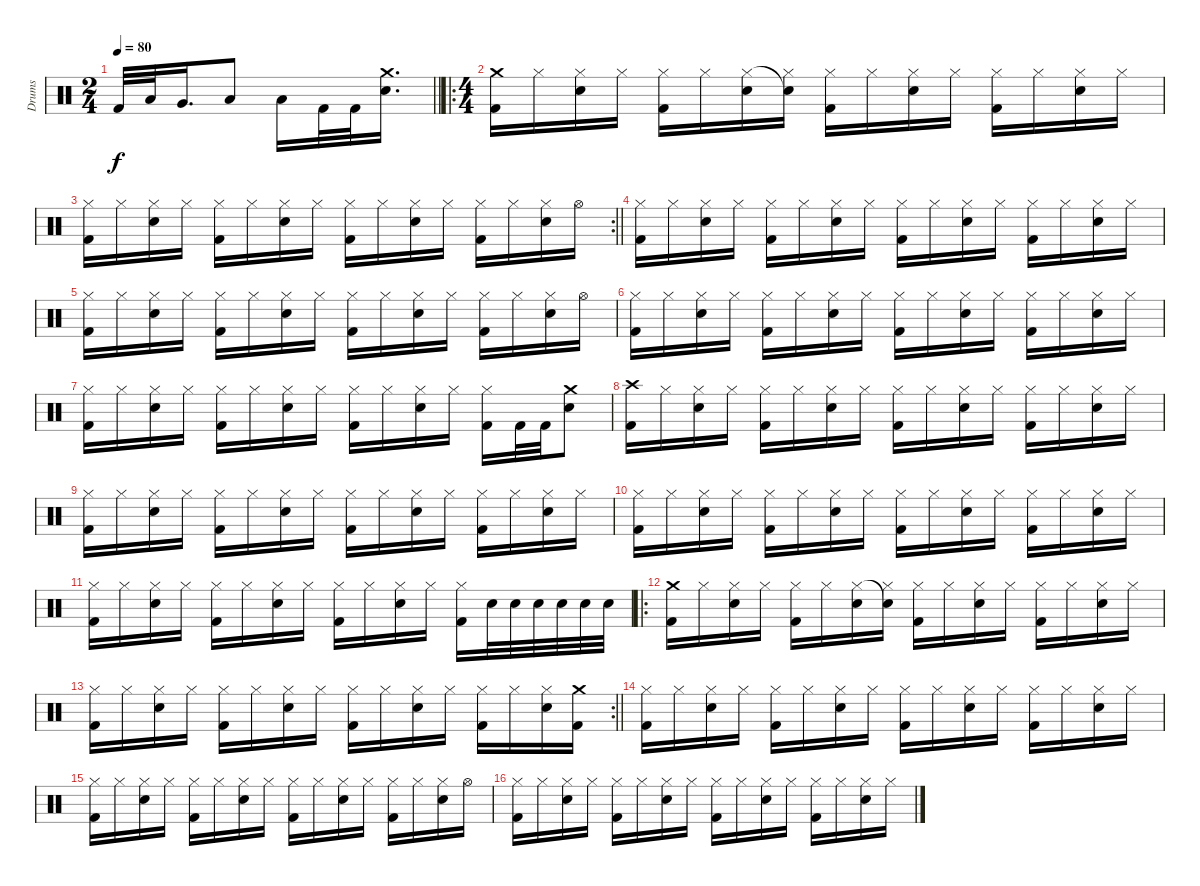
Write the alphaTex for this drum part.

\track ("Drums" "Drums") {instrument percussion}
\staff {score}
\articulation defaults
\ts (2 4)
\tempo 80
\clef neutral
\barLineRight lightlight
\ks c "Kick (hit) 2".32{dy f} "Low Tom (hit)".32 "Very Low Tom (hit)".16{d} "Low Floor Tom (hit)".8 "Low Floor Tom (hit)".16 "Kick (hit) 2".32 "Kick (hit) 2".32
("Crash medium (hit)" "Electric Snare (hit)").16{d} |
\ro
\ts (4 4)
("Crash medium (hit)" "Kick (hit) 2").16 "Hi-Hat (closed)".16 ("Hi-Hat (closed)" "Electric Snare (hit)").16 "Hi-Hat (closed)".16 ("Hi-Hat (closed)" "Kick (hit) 2").16 "Hi-Hat (closed)".16 ("Hi-Hat (closed)" "Electric Snare (hit)").16 ("Snare (hit)"{t} "Hi-Hat (closed)").16 ("Hi-Hat (closed)" "Kick (hit) 2").16 "Hi-Hat (closed)".16 ("Hi-Hat (closed)" "Electric Snare (hit)").16 "Hi-Hat (closed)".16 ("Hi-Hat (closed)" "Kick (hit) 2").16 "Hi-Hat (closed)".16 ("Hi-Hat (closed)" "Electric Snare (hit)").16 "Hi-Hat (closed)".16 |
\rc 2
\barLineRight lightlight
("Hi-Hat (closed)" "Kick (hit) 2").16 "Hi-Hat (closed)".16 ("Hi-Hat (closed)" "Electric Snare (hit)").16 "Hi-Hat (closed)".16 ("Hi-Hat (closed)" "Kick (hit) 2").16 "Hi-Hat (closed)".16 ("Hi-Hat (closed)" "Electric Snare (hit)").16 "Hi-Hat (closed)".16 ("Hi-Hat (closed)" "Kick (hit) 2").16 "Hi-Hat (closed)".16 ("Hi-Hat (closed)" "Electric Snare (hit)").16 "Hi-Hat (closed)".16 ("Hi-Hat (closed)" "Kick (hit) 2").16 "Hi-Hat (closed)".16 ("Hi-Hat (closed)" "Electric Snare (hit)").16 "Hi-Hat (open)".16 |
("Hi-Hat (closed)" "Kick (hit) 2").16 "Hi-Hat (closed)".16 ("Hi-Hat (closed)" "Electric Snare (hit)").16 "Hi-Hat (closed)".16 ("Hi-Hat (closed)" "Kick (hit) 2").16 "Hi-Hat (closed)".16 ("Hi-Hat (closed)" "Electric Snare (hit)").16 "Hi-Hat (closed)".16 ("Hi-Hat (closed)" "Kick (hit) 2").16 "Hi-Hat (closed)".16 ("Hi-Hat (closed)" "Electric Snare (hit)").16 "Hi-Hat (closed)".16 ("Hi-Hat (closed)" "Kick (hit) 2").16 "Hi-Hat (closed)".16 ("Hi-Hat (closed)" "Electric Snare (hit)").16 "Hi-Hat (closed)".16 |
("Hi-Hat (closed)" "Kick (hit) 2").16 "Hi-Hat (closed)".16 ("Hi-Hat (closed)" "Electric Snare (hit)").16 "Hi-Hat (closed)".16 ("Hi-Hat (closed)" "Kick (hit) 2").16 "Hi-Hat (closed)".16 ("Hi-Hat (closed)" "Electric Snare (hit)").16 "Hi-Hat (closed)".16 ("Hi-Hat (closed)" "Kick (hit) 2").16 "Hi-Hat (closed)".16 ("Hi-Hat (closed)" "Electric Snare (hit)").16 "Hi-Hat (closed)".16 ("Hi-Hat (closed)" "Kick (hit) 2").16 "Hi-Hat (closed)".16 ("Hi-Hat (closed)" "Electric Snare (hit)").16 "Hi-Hat (open)".16 |
("Hi-Hat (closed)" "Kick (hit) 2").16 "Hi-Hat (closed)".16 ("Hi-Hat (closed)" "Electric Snare (hit)").16 "Hi-Hat (closed)".16 ("Hi-Hat (closed)" "Kick (hit) 2").16 "Hi-Hat (closed)".16 ("Hi-Hat (closed)" "Electric Snare (hit)").16 "Hi-Hat (closed)".16 ("Hi-Hat (closed)" "Kick (hit) 2").16 "Hi-Hat (closed)".16 ("Hi-Hat (closed)" "Electric Snare (hit)").16 "Hi-Hat (closed)".16 ("Hi-Hat (closed)" "Kick (hit) 2").16 "Hi-Hat (closed)".16 ("Hi-Hat (closed)" "Electric Snare (hit)").16 "Hi-Hat (closed)".16 |
("Hi-Hat (closed)" "Kick (hit) 2").16 "Hi-Hat (closed)".16 ("Hi-Hat (closed)" "Electric Snare (hit)").16 "Hi-Hat (closed)".16 ("Hi-Hat (closed)" "Kick (hit) 2").16 "Hi-Hat (closed)".16 ("Hi-Hat (closed)" "Electric Snare (hit)").16 "Hi-Hat (closed)".16 ("Hi-Hat (closed)" "Kick (hit) 2").16 "Hi-Hat (closed)".16 ("Hi-Hat (closed)" "Electric Snare (hit)").16 "Hi-Hat (closed)".16 ("Hi-Hat (closed)" "Kick (hit) 2").16 "Kick (hit) 2".32 "Kick (hit) 2".32 ("Crash medium (hit)" "Electric Snare (hit)").8 |
("Crash high (hit)" "Kick (hit) 2").16 "Hi-Hat (closed)".16 ("Hi-Hat (closed)" "Electric Snare (hit)").16 "Hi-Hat (closed)".16 ("Hi-Hat (closed)" "Kick (hit) 2").16 "Hi-Hat (closed)".16 ("Hi-Hat (closed)" "Electric Snare (hit)").16 "Hi-Hat (closed)".16 ("Hi-Hat (closed)" "Kick (hit) 2").16 "Hi-Hat (closed)".16 ("Hi-Hat (closed)" "Electric Snare (hit)").16 "Hi-Hat (closed)".16 ("Hi-Hat (closed)" "Kick (hit) 2").16 "Hi-Hat (closed)".16 ("Hi-Hat (closed)" "Electric Snare (hit)").16 "Hi-Hat (closed)".16 |
("Hi-Hat (closed)" "Kick (hit) 2").16 "Hi-Hat (closed)".16 ("Hi-Hat (closed)" "Electric Snare (hit)").16 "Hi-Hat (closed)".16 ("Hi-Hat (closed)" "Kick (hit) 2").16 "Hi-Hat (closed)".16 ("Hi-Hat (closed)" "Electric Snare (hit)").16 "Hi-Hat (closed)".16 ("Hi-Hat (closed)" "Kick (hit) 2").16 "Hi-Hat (closed)".16 ("Hi-Hat (closed)" "Electric Snare (hit)").16 "Hi-Hat (closed)".16 ("Hi-Hat (closed)" "Kick (hit) 2").16 "Hi-Hat (closed)".16 ("Hi-Hat (closed)" "Electric Snare (hit)").16 "Hi-Hat (closed)".16 |
("Hi-Hat (closed)" "Kick (hit) 2").16 "Hi-Hat (closed)".16 ("Hi-Hat (closed)" "Electric Snare (hit)").16 "Hi-Hat (closed)".16 ("Hi-Hat (closed)" "Kick (hit) 2").16 "Hi-Hat (closed)".16 ("Hi-Hat (closed)" "Electric Snare (hit)").16 "Hi-Hat (closed)".16 ("Hi-Hat (closed)" "Kick (hit) 2").16 "Hi-Hat (closed)".16 ("Hi-Hat (closed)" "Electric Snare (hit)").16 "Hi-Hat (closed)".16 ("Hi-Hat (closed)" "Kick (hit) 2").16 "Hi-Hat (closed)".16 ("Hi-Hat (closed)" "Electric Snare (hit)").16 "Hi-Hat (closed)".16 |
("Hi-Hat (closed)" "Kick (hit) 2").16 "Hi-Hat (closed)".16 ("Hi-Hat (closed)" "Electric Snare (hit)").16 "Hi-Hat (closed)".16 ("Hi-Hat (closed)" "Kick (hit) 2").16 "Hi-Hat (closed)".16 ("Hi-Hat (closed)" "Electric Snare (hit)").16 "Hi-Hat (closed)".16 ("Hi-Hat (closed)" "Kick (hit) 2").16 "Hi-Hat (closed)".16 ("Hi-Hat (closed)" "Electric Snare (hit)").16 "Hi-Hat (closed)".16 ("Hi-Hat (closed)" "Kick (hit) 2").16 "Electric Snare (hit)".32 "Electric Snare (hit)".32 "Electric Snare (hit)".32 "Electric Snare (hit)".32 "Electric Snare (hit)".32 "Electric Snare (hit)".32 |
\ro
("Crash medium (hit)" "Kick (hit) 2").16 "Hi-Hat (closed)".16 ("Hi-Hat (closed)" "Electric Snare (hit)").16 "Hi-Hat (closed)".16 ("Hi-Hat (closed)" "Kick (hit) 2").16 "Hi-Hat (closed)".16 ("Hi-Hat (closed)" "Electric Snare (hit)").16 ("Snare (hit)"{t} "Hi-Hat (closed)").16 ("Hi-Hat (closed)" "Kick (hit) 2").16 "Hi-Hat (closed)".16 ("Hi-Hat (closed)" "Electric Snare (hit)").16 "Hi-Hat (closed)".16 ("Hi-Hat (closed)" "Kick (hit) 2").16 "Hi-Hat (closed)".16 ("Hi-Hat (closed)" "Electric Snare (hit)").16 "Hi-Hat (closed)".16 |
\rc 2
\barLineRight lightlight
("Hi-Hat (closed)" "Kick (hit) 2").16 "Hi-Hat (closed)".16 ("Hi-Hat (closed)" "Electric Snare (hit)").16 "Hi-Hat (closed)".16 ("Hi-Hat (closed)" "Kick (hit) 2").16 "Hi-Hat (closed)".16 ("Hi-Hat (closed)" "Electric Snare (hit)").16 "Hi-Hat (closed)".16 ("Hi-Hat (closed)" "Kick (hit) 2").16 "Hi-Hat (closed)".16 ("Hi-Hat (closed)" "Electric Snare (hit)").16 "Hi-Hat (closed)".16 ("Hi-Hat (closed)" "Kick (hit) 2").16 "Hi-Hat (closed)".16 ("Hi-Hat (closed)" "Electric Snare (hit)").16 ("Crash medium (hit)" "Kick (hit) 2").16 |
("Hi-Hat (closed)" "Kick (hit) 2").16 "Hi-Hat (closed)".16 ("Hi-Hat (closed)" "Electric Snare (hit)").16 "Hi-Hat (closed)".16 ("Hi-Hat (closed)" "Kick (hit) 2").16 "Hi-Hat (closed)".16 ("Hi-Hat (closed)" "Electric Snare (hit)").16 "Hi-Hat (closed)".16 ("Hi-Hat (closed)" "Kick (hit) 2").16 "Hi-Hat (closed)".16 ("Hi-Hat (closed)" "Electric Snare (hit)").16 "Hi-Hat (closed)".16 ("Hi-Hat (closed)" "Kick (hit) 2").16 "Hi-Hat (closed)".16 ("Hi-Hat (closed)" "Electric Snare (hit)").16 "Hi-Hat (closed)".16 |
("Hi-Hat (closed)" "Kick (hit) 2").16 "Hi-Hat (closed)".16 ("Hi-Hat (closed)" "Electric Snare (hit)").16 "Hi-Hat (closed)".16 ("Hi-Hat (closed)" "Kick (hit) 2").16 "Hi-Hat (closed)".16 ("Hi-Hat (closed)" "Electric Snare (hit)").16 "Hi-Hat (closed)".16 ("Hi-Hat (closed)" "Kick (hit) 2").16 "Hi-Hat (closed)".16 ("Hi-Hat (closed)" "Electric Snare (hit)").16 "Hi-Hat (closed)".16 ("Hi-Hat (closed)" "Kick (hit) 2").16 "Hi-Hat (closed)".16 ("Hi-Hat (closed)" "Electric Snare (hit)").16 "Hi-Hat (open)".16 |
("Hi-Hat (closed)" "Kick (hit) 2").16 "Hi-Hat (closed)".16 ("Hi-Hat (closed)" "Electric Snare (hit)").16 "Hi-Hat (closed)".16 ("Hi-Hat (closed)" "Kick (hit) 2").16 "Hi-Hat (closed)".16 ("Hi-Hat (closed)" "Electric Snare (hit)").16 "Hi-Hat (closed)".16 ("Hi-Hat (closed)" "Kick (hit) 2").16 "Hi-Hat (closed)".16 ("Hi-Hat (closed)" "Electric Snare (hit)").16 "Hi-Hat (closed)".16 ("Hi-Hat (closed)" "Kick (hit) 2").16 "Hi-Hat (closed)".16 ("Hi-Hat (closed)" "Electric Snare (hit)").16 "Hi-Hat (closed)".16
